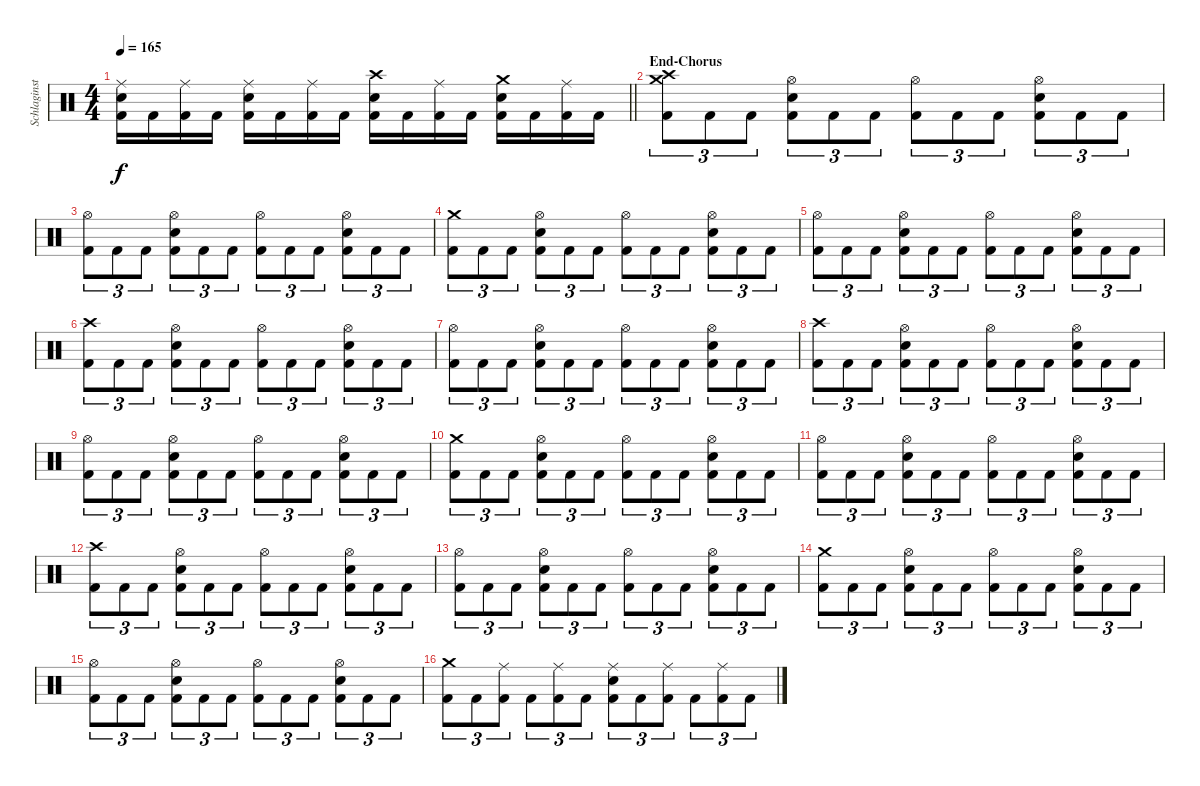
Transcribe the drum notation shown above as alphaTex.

\track ("Schlaginstrumente - Auswahl" "Schlaginst") {instrument percussion}
\staff {score}
\articulation defaults
\ts (4 4)
\tempo 165
\clef neutral
\barLineRight lightlight
\ks c
("Ride (middle)" "Electric Snare (hit)" "Kick (hit) 2").16{dy f} "Kick (hit) 2".16 ("Ride (middle)" "Kick (hit) 2").16 "Kick (hit) 2".16 ("Ride (middle)" "Electric Snare (hit)" "Kick (hit) 2").16 "Kick (hit) 2".16 ("Ride (middle)" "Kick (hit) 2").16 "Kick (hit) 2".16 ("Crash high (hit)" "Electric Snare (hit)" "Kick (hit) 2").16 "Kick (hit) 2".16 ("Ride (middle)" "Kick (hit) 2").16 "Kick (hit) 2".16 ("Crash medium (hit)" "Electric Snare (hit)" "Kick (hit) 2").16 "Kick (hit) 2".16 ("Ride (middle)" "Kick (hit) 2").16 "Kick (hit) 2".16 |
\section ("" "End-Chorus ")
("Crash high (hit)" "Crash medium (hit)" "Kick (hit) 2").8{tu (3 2)} "Kick (hit) 2".8{tu (3 2)} "Kick (hit) 2".8{tu (3 2)} ("Hi-Hat (open)" "Electric Snare (hit)" "Kick (hit) 2").8{tu (3 2)} "Kick (hit) 2".8{tu (3 2)} "Kick (hit) 2".8{tu (3 2)} ("Hi-Hat (open)" "Kick (hit) 2").8{tu (3 2)} "Kick (hit) 2".8{tu (3 2)} "Kick (hit) 2".8{tu (3 2)} ("Hi-Hat (open)" "Electric Snare (hit)" "Kick (hit) 2").8{tu (3 2)} "Kick (hit) 2".8{tu (3 2)} "Kick (hit) 2".8{tu (3 2)} |
("Hi-Hat (open)" "Kick (hit) 2").8{tu (3 2)} "Kick (hit) 2".8{tu (3 2)} "Kick (hit) 2".8{tu (3 2)} ("Hi-Hat (open)" "Electric Snare (hit)" "Kick (hit) 2").8{tu (3 2)} "Kick (hit) 2".8{tu (3 2)} "Kick (hit) 2".8{tu (3 2)} ("Hi-Hat (open)" "Kick (hit) 2").8{tu (3 2)} "Kick (hit) 2".8{tu (3 2)} "Kick (hit) 2".8{tu (3 2)} ("Hi-Hat (open)" "Electric Snare (hit)" "Kick (hit) 2").8{tu (3 2)} "Kick (hit) 2".8{tu (3 2)} "Kick (hit) 2".8{tu (3 2)} |
("Crash medium (hit)" "Kick (hit) 2").8{tu (3 2)} "Kick (hit) 2".8{tu (3 2)} "Kick (hit) 2".8{tu (3 2)} ("Hi-Hat (open)" "Electric Snare (hit)" "Kick (hit) 2").8{tu (3 2)} "Kick (hit) 2".8{tu (3 2)} "Kick (hit) 2".8{tu (3 2)} ("Hi-Hat (open)" "Kick (hit) 2").8{tu (3 2)} "Kick (hit) 2".8{tu (3 2)} "Kick (hit) 2".8{tu (3 2)} ("Hi-Hat (open)" "Electric Snare (hit)" "Kick (hit) 2").8{tu (3 2)} "Kick (hit) 2".8{tu (3 2)} "Kick (hit) 2".8{tu (3 2)} |
("Hi-Hat (open)" "Kick (hit) 2").8{tu (3 2)} "Kick (hit) 2".8{tu (3 2)} "Kick (hit) 2".8{tu (3 2)} ("Hi-Hat (open)" "Electric Snare (hit)" "Kick (hit) 2").8{tu (3 2)} "Kick (hit) 2".8{tu (3 2)} "Kick (hit) 2".8{tu (3 2)} ("Hi-Hat (open)" "Kick (hit) 2").8{tu (3 2)} "Kick (hit) 2".8{tu (3 2)} "Kick (hit) 2".8{tu (3 2)} ("Hi-Hat (open)" "Electric Snare (hit)" "Kick (hit) 2").8{tu (3 2)} "Kick (hit) 2".8{tu (3 2)} "Kick (hit) 2".8{tu (3 2)} |
("Crash high (hit)" "Kick (hit) 2").8{tu (3 2)} "Kick (hit) 2".8{tu (3 2)} "Kick (hit) 2".8{tu (3 2)} ("Hi-Hat (open)" "Electric Snare (hit)" "Kick (hit) 2").8{tu (3 2)} "Kick (hit) 2".8{tu (3 2)} "Kick (hit) 2".8{tu (3 2)} ("Hi-Hat (open)" "Kick (hit) 2").8{tu (3 2)} "Kick (hit) 2".8{tu (3 2)} "Kick (hit) 2".8{tu (3 2)} ("Hi-Hat (open)" "Electric Snare (hit)" "Kick (hit) 2").8{tu (3 2)} "Kick (hit) 2".8{tu (3 2)} "Kick (hit) 2".8{tu (3 2)} |
("Hi-Hat (open)" "Kick (hit) 2").8{tu (3 2)} "Kick (hit) 2".8{tu (3 2)} "Kick (hit) 2".8{tu (3 2)} ("Hi-Hat (open)" "Electric Snare (hit)" "Kick (hit) 2").8{tu (3 2)} "Kick (hit) 2".8{tu (3 2)} "Kick (hit) 2".8{tu (3 2)} ("Hi-Hat (open)" "Kick (hit) 2").8{tu (3 2)} "Kick (hit) 2".8{tu (3 2)} "Kick (hit) 2".8{tu (3 2)} ("Hi-Hat (open)" "Electric Snare (hit)" "Kick (hit) 2").8{tu (3 2)} "Kick (hit) 2".8{tu (3 2)} "Kick (hit) 2".8{tu (3 2)} |
("Crash high (hit)" "Kick (hit) 2").8{tu (3 2)} "Kick (hit) 2".8{tu (3 2)} "Kick (hit) 2".8{tu (3 2)} ("Hi-Hat (open)" "Electric Snare (hit)" "Kick (hit) 2").8{tu (3 2)} "Kick (hit) 2".8{tu (3 2)} "Kick (hit) 2".8{tu (3 2)} ("Hi-Hat (open)" "Kick (hit) 2").8{tu (3 2)} "Kick (hit) 2".8{tu (3 2)} "Kick (hit) 2".8{tu (3 2)} ("Hi-Hat (open)" "Electric Snare (hit)" "Kick (hit) 2").8{tu (3 2)} "Kick (hit) 2".8{tu (3 2)} "Kick (hit) 2".8{tu (3 2)} |
("Hi-Hat (open)" "Kick (hit) 2").8{tu (3 2)} "Kick (hit) 2".8{tu (3 2)} "Kick (hit) 2".8{tu (3 2)} ("Hi-Hat (open)" "Electric Snare (hit)" "Kick (hit) 2").8{tu (3 2)} "Kick (hit) 2".8{tu (3 2)} "Kick (hit) 2".8{tu (3 2)} ("Hi-Hat (open)" "Kick (hit) 2").8{tu (3 2)} "Kick (hit) 2".8{tu (3 2)} "Kick (hit) 2".8{tu (3 2)} ("Hi-Hat (open)" "Electric Snare (hit)" "Kick (hit) 2").8{tu (3 2)} "Kick (hit) 2".8{tu (3 2)} "Kick (hit) 2".8{tu (3 2)} |
("Crash medium (hit)" "Kick (hit) 2").8{tu (3 2)} "Kick (hit) 2".8{tu (3 2)} "Kick (hit) 2".8{tu (3 2)} ("Hi-Hat (open)" "Electric Snare (hit)" "Kick (hit) 2").8{tu (3 2)} "Kick (hit) 2".8{tu (3 2)} "Kick (hit) 2".8{tu (3 2)} ("Hi-Hat (open)" "Kick (hit) 2").8{tu (3 2)} "Kick (hit) 2".8{tu (3 2)} "Kick (hit) 2".8{tu (3 2)} ("Hi-Hat (open)" "Electric Snare (hit)" "Kick (hit) 2").8{tu (3 2)} "Kick (hit) 2".8{tu (3 2)} "Kick (hit) 2".8{tu (3 2)} |
("Hi-Hat (open)" "Kick (hit) 2").8{tu (3 2)} "Kick (hit) 2".8{tu (3 2)} "Kick (hit) 2".8{tu (3 2)} ("Hi-Hat (open)" "Electric Snare (hit)" "Kick (hit) 2").8{tu (3 2)} "Kick (hit) 2".8{tu (3 2)} "Kick (hit) 2".8{tu (3 2)} ("Hi-Hat (open)" "Kick (hit) 2").8{tu (3 2)} "Kick (hit) 2".8{tu (3 2)} "Kick (hit) 2".8{tu (3 2)} ("Hi-Hat (open)" "Electric Snare (hit)" "Kick (hit) 2").8{tu (3 2)} "Kick (hit) 2".8{tu (3 2)} "Kick (hit) 2".8{tu (3 2)} |
("Crash high (hit)" "Kick (hit) 2").8{tu (3 2)} "Kick (hit) 2".8{tu (3 2)} "Kick (hit) 2".8{tu (3 2)} ("Hi-Hat (open)" "Electric Snare (hit)" "Kick (hit) 2").8{tu (3 2)} "Kick (hit) 2".8{tu (3 2)} "Kick (hit) 2".8{tu (3 2)} ("Hi-Hat (open)" "Kick (hit) 2").8{tu (3 2)} "Kick (hit) 2".8{tu (3 2)} "Kick (hit) 2".8{tu (3 2)} ("Hi-Hat (open)" "Electric Snare (hit)" "Kick (hit) 2").8{tu (3 2)} "Kick (hit) 2".8{tu (3 2)} "Kick (hit) 2".8{tu (3 2)} |
("Hi-Hat (open)" "Kick (hit) 2").8{tu (3 2)} "Kick (hit) 2".8{tu (3 2)} "Kick (hit) 2".8{tu (3 2)} ("Hi-Hat (open)" "Electric Snare (hit)" "Kick (hit) 2").8{tu (3 2)} "Kick (hit) 2".8{tu (3 2)} "Kick (hit) 2".8{tu (3 2)} ("Hi-Hat (open)" "Kick (hit) 2").8{tu (3 2)} "Kick (hit) 2".8{tu (3 2)} "Kick (hit) 2".8{tu (3 2)} ("Hi-Hat (open)" "Electric Snare (hit)" "Kick (hit) 2").8{tu (3 2)} "Kick (hit) 2".8{tu (3 2)} "Kick (hit) 2".8{tu (3 2)} |
("Crash medium (hit)" "Kick (hit) 2").8{tu (3 2)} "Kick (hit) 2".8{tu (3 2)} "Kick (hit) 2".8{tu (3 2)} ("Hi-Hat (open)" "Electric Snare (hit)" "Kick (hit) 2").8{tu (3 2)} "Kick (hit) 2".8{tu (3 2)} "Kick (hit) 2".8{tu (3 2)} ("Hi-Hat (open)" "Kick (hit) 2").8{tu (3 2)} "Kick (hit) 2".8{tu (3 2)} "Kick (hit) 2".8{tu (3 2)} ("Hi-Hat (open)" "Electric Snare (hit)" "Kick (hit) 2").8{tu (3 2)} "Kick (hit) 2".8{tu (3 2)} "Kick (hit) 2".8{tu (3 2)} |
("Hi-Hat (open)" "Kick (hit) 2").8{tu (3 2)} "Kick (hit) 2".8{tu (3 2)} "Kick (hit) 2".8{tu (3 2)} ("Hi-Hat (open)" "Electric Snare (hit)" "Kick (hit) 2").8{tu (3 2)} "Kick (hit) 2".8{tu (3 2)} "Kick (hit) 2".8{tu (3 2)} ("Hi-Hat (open)" "Kick (hit) 2").8{tu (3 2)} "Kick (hit) 2".8{tu (3 2)} "Kick (hit) 2".8{tu (3 2)} ("Hi-Hat (open)" "Electric Snare (hit)" "Kick (hit) 2").8{tu (3 2)} "Kick (hit) 2".8{tu (3 2)} "Kick (hit) 2".8{tu (3 2)} |
("Crash medium (hit)" "Kick (hit) 2").8{tu (3 2)} "Kick (hit) 2".8{tu (3 2)} ("Ride (middle)" "Kick (hit) 2").8{tu (3 2)} "Kick (hit) 2".8{tu (3 2)} ("Ride (middle)" "Kick (hit) 2").8{tu (3 2)} "Kick (hit) 2".8{tu (3 2)} ("Ride (middle)" "Electric Snare (hit)" "Kick (hit) 2").8{tu (3 2)} "Kick (hit) 2".8{tu (3 2)} ("Ride (middle)" "Kick (hit) 2").8{tu (3 2)} "Kick (hit) 2".8{tu (3 2)} ("Ride (middle)" "Kick (hit) 2").8{tu (3 2)} "Kick (hit) 2".8{tu (3 2)}
